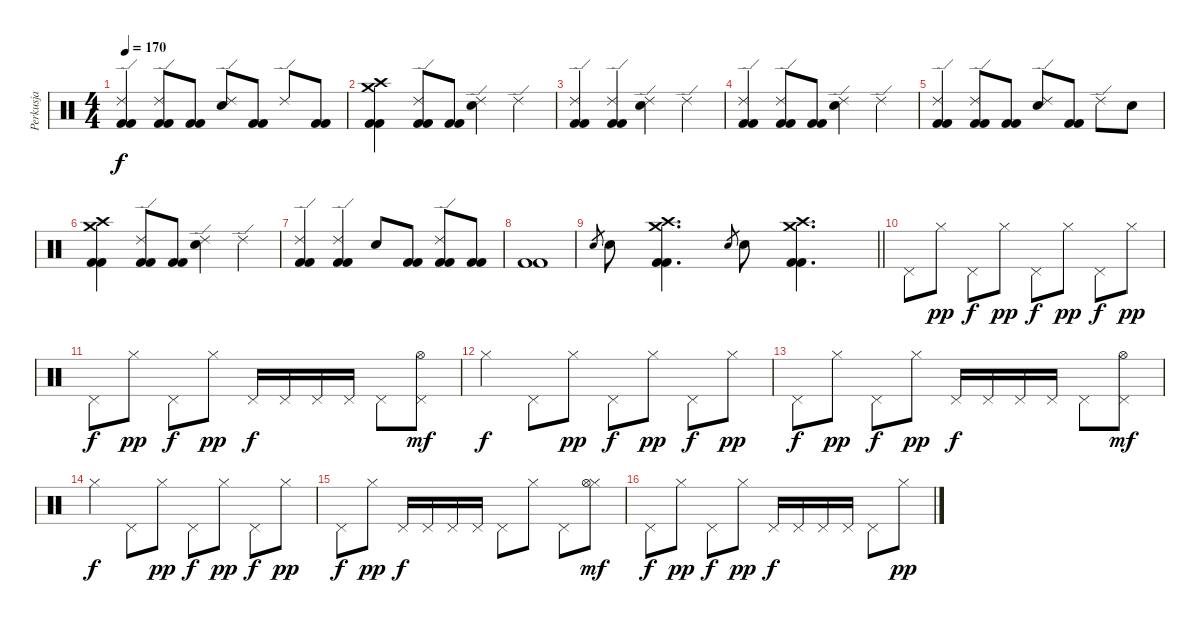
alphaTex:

\track ("Perkusja" "Perkusja") {instrument percussion}
\staff {score}
\articulation defaults
\ts (4 4)
\tempo 170
\clef neutral
\ks c
("Ride (edge) 2" "Kick (hit) 2" "Kick (hit) 2").4{dy f} ("Ride (edge) 2" "Kick (hit) 2" "Kick (hit) 2").8 ("Kick (hit) 2" "Kick (hit) 2").8 ("Ride (edge) 2" "Electric Snare (hit)").8 ("Kick (hit) 2" "Kick (hit) 2").8 "Ride (edge) 2".8 ("Kick (hit) 2" "Kick (hit) 2").8 |
("Crash high (hit)" "Crash medium (hit)" "Kick (hit) 2" "Kick (hit) 2").4 ("Ride (edge) 2" "Kick (hit) 2" "Kick (hit) 2").8 ("Kick (hit) 2" "Kick (hit) 2").8 ("Ride (edge) 2" "Electric Snare (hit)").4 "Ride (edge) 2".4 |
("Ride (edge) 2" "Kick (hit) 2" "Kick (hit) 2").4 ("Ride (edge) 2" "Kick (hit) 2" "Kick (hit) 2").4 ("Ride (edge) 2" "Electric Snare (hit)").4 "Ride (edge) 2".4 |
("Ride (edge) 2" "Kick (hit) 2" "Kick (hit) 2").4 ("Ride (edge) 2" "Kick (hit) 2" "Kick (hit) 2").8 ("Kick (hit) 2" "Kick (hit) 2").8 ("Ride (edge) 2" "Electric Snare (hit)").4 "Ride (edge) 2".4 |
("Ride (edge) 2" "Kick (hit) 2" "Kick (hit) 2").4 ("Ride (edge) 2" "Kick (hit) 2" "Kick (hit) 2").8 ("Kick (hit) 2" "Kick (hit) 2").8 ("Ride (edge) 2" "Electric Snare (hit)").8 ("Kick (hit) 2" "Kick (hit) 2").8 "Ride (edge) 2".8 "Electric Snare (hit)".8 |
("Crash high (hit)" "Crash medium (hit)" "Kick (hit) 2" "Kick (hit) 2").4 ("Ride (edge) 2" "Kick (hit) 2" "Kick (hit) 2").8 ("Kick (hit) 2" "Kick (hit) 2").8 ("Ride (edge) 2" "Electric Snare (hit)").4 "Ride (edge) 2".4 |
("Ride (edge) 2" "Kick (hit) 2" "Kick (hit) 2").4 ("Ride (edge) 2" "Kick (hit) 2" "Kick (hit) 2").4 "Electric Snare (hit)".8 ("Kick (hit) 2" "Kick (hit) 2").8 ("Ride (edge) 2" "Kick (hit) 2" "Kick (hit) 2").8 ("Kick (hit) 2" "Kick (hit) 2").8 |
("Kick (hit) 2" "Kick (hit) 2").1 |
\barLineRight lightlight "Electric Snare (hit)".8{gr} "Electric Snare (hit)".8
("Crash medium (hit)" "Crash high (hit)" "Kick (hit) 2" "Kick (hit) 2").4{d} "Electric Snare (hit)".8{gr} "Electric Snare (hit)".8 ("Crash medium (hit)" "Crash high (hit)" "Kick (hit) 2" "Kick (hit) 2").4{d} |
"Pedal Hi-Hat (hit)".8 "Hi-Hat (closed)".8{dy pp} "Pedal Hi-Hat (hit)".8{dy f} "Hi-Hat (closed)".8{dy pp} "Pedal Hi-Hat (hit)".8{dy f} "Hi-Hat (closed)".8{dy pp} "Pedal Hi-Hat (hit)".8{dy f} "Hi-Hat (closed)".8{dy pp} |
"Pedal Hi-Hat (hit)".8{dy f} "Hi-Hat (closed)".8{dy pp} "Pedal Hi-Hat (hit)".8{dy f} "Hi-Hat (closed)".8{dy pp} "Pedal Hi-Hat (hit)".16{dy f} "Pedal Hi-Hat (hit)".16 "Pedal Hi-Hat (hit)".16 "Pedal Hi-Hat (hit)".16 "Pedal Hi-Hat (hit)".8 ("Pedal Hi-Hat (hit)" "Hi-Hat (open)").8{dy mf} |
"Hi-Hat (closed)".4{dy f} "Pedal Hi-Hat (hit)".8 "Hi-Hat (closed)".8{dy pp} "Pedal Hi-Hat (hit)".8{dy f} "Hi-Hat (closed)".8{dy pp} "Pedal Hi-Hat (hit)".8{dy f} "Hi-Hat (closed)".8{dy pp} |
"Pedal Hi-Hat (hit)".8{dy f} "Hi-Hat (closed)".8{dy pp} "Pedal Hi-Hat (hit)".8{dy f} "Hi-Hat (closed)".8{dy pp} "Pedal Hi-Hat (hit)".16{dy f} "Pedal Hi-Hat (hit)".16 "Pedal Hi-Hat (hit)".16 "Pedal Hi-Hat (hit)".16 "Pedal Hi-Hat (hit)".8 ("Pedal Hi-Hat (hit)" "Hi-Hat (open)").8{dy mf} |
"Hi-Hat (closed)".4{dy f} "Pedal Hi-Hat (hit)".8 "Hi-Hat (closed)".8{dy pp} "Pedal Hi-Hat (hit)".8{dy f} "Hi-Hat (closed)".8{dy pp} "Pedal Hi-Hat (hit)".8{dy f} "Hi-Hat (closed)".8{dy pp} |
"Pedal Hi-Hat (hit)".8{dy f} "Hi-Hat (closed)".8{dy pp} "Pedal Hi-Hat (hit)".16{dy f} "Pedal Hi-Hat (hit)".16 "Pedal Hi-Hat (hit)".16 "Pedal Hi-Hat (hit)".16 "Pedal Hi-Hat (hit)".8 "Hi-Hat (closed)".8 "Pedal Hi-Hat (hit)".8 ("Hi-Hat (closed)" "Hi-Hat (open)").8{dy mf} |
"Pedal Hi-Hat (hit)".8{dy f} "Hi-Hat (closed)".8{dy pp} "Pedal Hi-Hat (hit)".8{dy f} "Hi-Hat (closed)".8{dy pp} "Pedal Hi-Hat (hit)".16{dy f} "Pedal Hi-Hat (hit)".16 "Pedal Hi-Hat (hit)".16 "Pedal Hi-Hat (hit)".16 "Pedal Hi-Hat (hit)".8 "Hi-Hat (closed)".8{dy pp}
